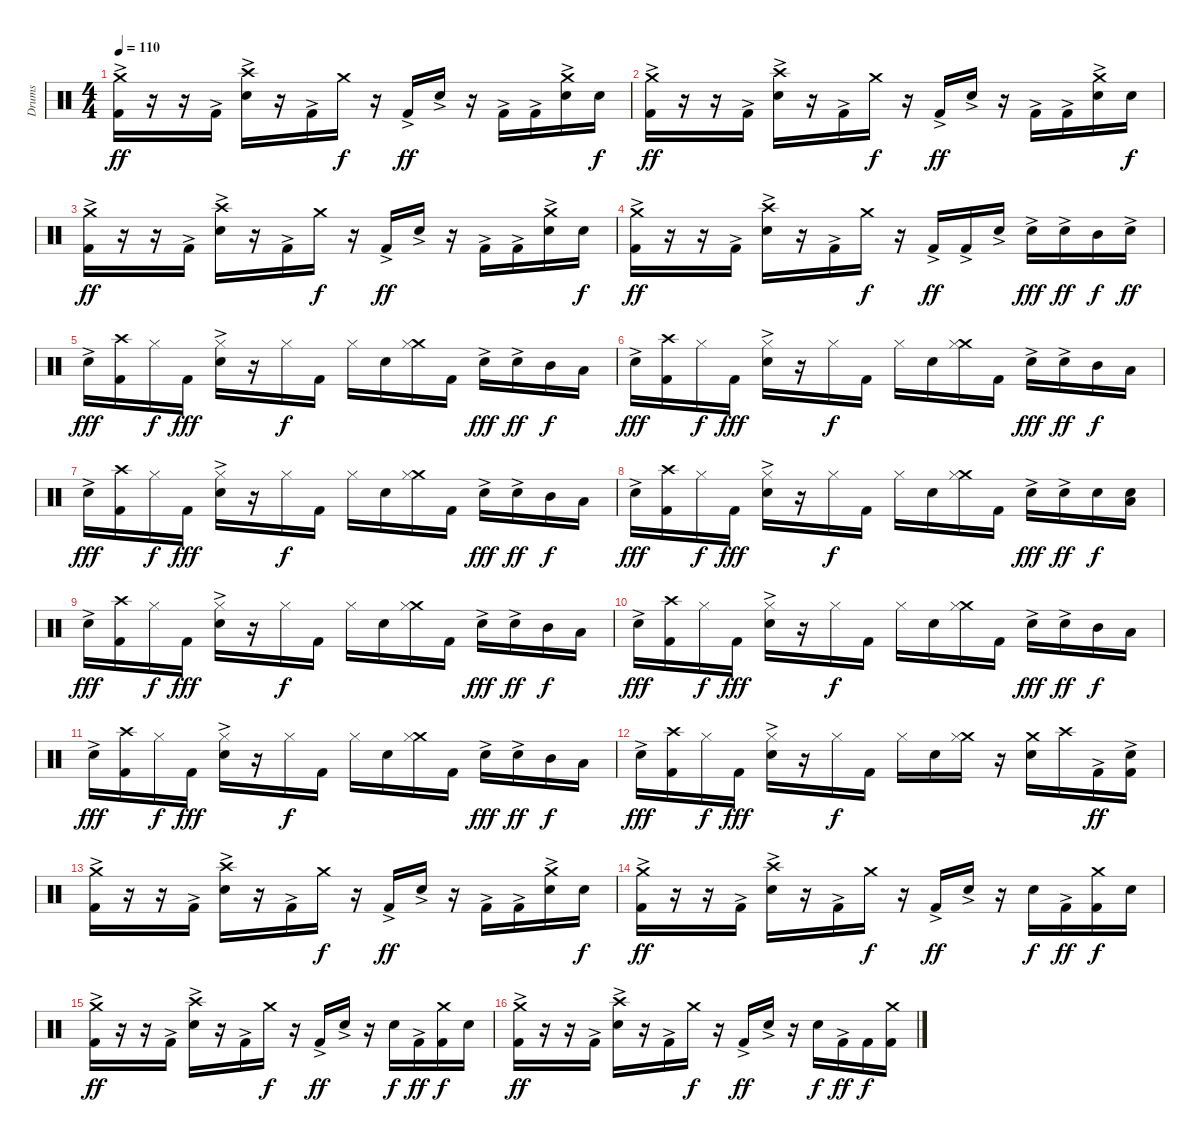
\track ("Drums" "Drums") {instrument percussion}
\staff {score}
\articulation defaults
\ts (4 4)
\tempo 110
\clef neutral
\ks c
("Crash medium (hit)" "Kick (hit) 2"{ac}).16{dy ff} r.16 r.16 "Kick (hit) 2"{ac}.16 ("Crash high (hit)" "Snare (hit) 2"{ac}).16 r.16 "Kick (hit) 2"{ac}.16 "Crash medium (hit)".16{dy f} r.16 "Kick (hit) 2"{ac}.16{dy ff} "Snare (hit) 2"{ac}.16 r.16 "Kick (hit) 2"{ac}.16 "Kick (hit) 2"{ac}.16 ("Crash medium (hit)" "Snare (hit) 2"{ac}).16 "Electric Snare (hit)".16{dy f} |
("Crash medium (hit)" "Kick (hit) 2"{ac}).16{dy ff} r.16 r.16 "Kick (hit) 2"{ac}.16 ("Crash high (hit)" "Snare (hit) 2"{ac}).16 r.16 "Kick (hit) 2"{ac}.16 "Crash medium (hit)".16{dy f} r.16 "Kick (hit) 2"{ac}.16{dy ff} "Snare (hit) 2"{ac}.16 r.16 "Kick (hit) 2"{ac}.16 "Kick (hit) 2"{ac}.16 ("Crash medium (hit)" "Snare (hit) 2"{ac}).16 "Electric Snare (hit)".16{dy f} |
("Crash medium (hit)" "Kick (hit) 2"{ac}).16{dy ff} r.16 r.16 "Kick (hit) 2"{ac}.16 ("Crash high (hit)" "Snare (hit) 2"{ac}).16 r.16 "Kick (hit) 2"{ac}.16 "Crash medium (hit)".16{dy f} r.16 "Kick (hit) 2"{ac}.16{dy ff} "Snare (hit) 2"{ac}.16 r.16 "Kick (hit) 2"{ac}.16 "Kick (hit) 2"{ac}.16 ("Crash medium (hit)" "Snare (hit) 2"{ac}).16 "Electric Snare (hit)".16{dy f} |
("Crash medium (hit)" "Kick (hit) 2"{ac}).16{dy ff} r.16 r.16 "Kick (hit) 2"{ac}.16 ("Crash high (hit)" "Snare (hit) 2"{ac}).16 r.16 "Kick (hit) 2"{ac}.16 "Crash medium (hit)".16{dy f} r.16 "Kick (hit) 2"{ac}.16{dy ff} "Kick (hit) 2"{ac}.16 "Electric Snare (hit)"{ac}.16 "Electric Snare (hit)"{ac}.16{dy fff} "Electric Snare (hit)"{ac}.16{dy ff} "Mid Tom (hit)".16{dy f} "Electric Snare (hit)"{ac}.16{dy ff} |
"Electric Snare (hit)"{ac}.16{dy fff} ("Crash high (hit)" "Kick (hit) 2").16 "Hi-Hat (closed)".16{dy f} "Kick (hit) 2".16{dy fff} ("Hi-Hat (closed)" "Snare (hit) 2"{ac}).16 r.16 "Hi-Hat (closed)".16{dy f} "Kick (hit) 2".16 "Hi-Hat (closed)".16 "Snare (hit) 2".16 ("Crash medium (hit)" "Hi-Hat (closed)").16 "Kick (hit) 2".16 "Electric Snare (hit)"{ac}.16{dy fff} "Electric Snare (hit)"{ac}.16{dy ff} "Mid Tom (hit)".16{dy f} "Low Tom (hit)".16 |
"Electric Snare (hit)"{ac}.16{dy fff} ("Crash high (hit)" "Kick (hit) 2").16 "Hi-Hat (closed)".16{dy f} "Kick (hit) 2".16{dy fff} ("Hi-Hat (closed)" "Snare (hit) 2"{ac}).16 r.16 "Hi-Hat (closed)".16{dy f} "Kick (hit) 2".16 "Hi-Hat (closed)".16 "Snare (hit) 2".16 ("Crash medium (hit)" "Hi-Hat (closed)").16 "Kick (hit) 2".16 "Electric Snare (hit)"{ac}.16{dy fff} "Electric Snare (hit)"{ac}.16{dy ff} "Mid Tom (hit)".16{dy f} "Low Tom (hit)".16 |
"Electric Snare (hit)"{ac}.16{dy fff} ("Crash high (hit)" "Kick (hit) 2").16 "Hi-Hat (closed)".16{dy f} "Kick (hit) 2".16{dy fff} ("Hi-Hat (closed)" "Snare (hit) 2"{ac}).16 r.16 "Hi-Hat (closed)".16{dy f} "Kick (hit) 2".16 "Hi-Hat (closed)".16 "Snare (hit) 2".16 ("Crash medium (hit)" "Hi-Hat (closed)").16 "Kick (hit) 2".16 "Electric Snare (hit)"{ac}.16{dy fff} "Electric Snare (hit)"{ac}.16{dy ff} "Mid Tom (hit)".16{dy f} "Low Tom (hit)".16 |
"Electric Snare (hit)"{ac}.16{dy fff} ("Crash high (hit)" "Kick (hit) 2").16 "Hi-Hat (closed)".16{dy f} "Kick (hit) 2".16{dy fff} ("Hi-Hat (closed)" "Snare (hit) 2"{ac}).16 r.16 "Hi-Hat (closed)".16{dy f} "Kick (hit) 2".16 "Hi-Hat (closed)".16 "Snare (hit) 2".16 ("Crash medium (hit)" "Hi-Hat (closed)").16 "Kick (hit) 2".16 "Electric Snare (hit)"{ac}.16{dy fff} "Electric Snare (hit)"{ac}.16{dy ff} "Electric Snare (hit)".16{dy f} ("Low Tom (hit)" "Electric Snare (hit)").16 |
"Electric Snare (hit)"{ac}.16{dy fff} ("Crash high (hit)" "Kick (hit) 2").16 "Hi-Hat (closed)".16{dy f} "Kick (hit) 2".16{dy fff} ("Hi-Hat (closed)" "Snare (hit) 2"{ac}).16 r.16 "Hi-Hat (closed)".16{dy f} "Kick (hit) 2".16 "Hi-Hat (closed)".16 "Snare (hit) 2".16 ("Crash medium (hit)" "Hi-Hat (closed)").16 "Kick (hit) 2".16 "Electric Snare (hit)"{ac}.16{dy fff} "Electric Snare (hit)"{ac}.16{dy ff} "Mid Tom (hit)".16{dy f} "Low Tom (hit)".16 |
"Electric Snare (hit)"{ac}.16{dy fff} ("Crash high (hit)" "Kick (hit) 2").16 "Hi-Hat (closed)".16{dy f} "Kick (hit) 2".16{dy fff} ("Hi-Hat (closed)" "Snare (hit) 2"{ac}).16 r.16 "Hi-Hat (closed)".16{dy f} "Kick (hit) 2".16 "Hi-Hat (closed)".16 "Snare (hit) 2".16 ("Crash medium (hit)" "Hi-Hat (closed)").16 "Kick (hit) 2".16 "Electric Snare (hit)"{ac}.16{dy fff} "Electric Snare (hit)"{ac}.16{dy ff} "Mid Tom (hit)".16{dy f} "Low Tom (hit)".16 |
"Electric Snare (hit)"{ac}.16{dy fff} ("Crash high (hit)" "Kick (hit) 2").16 "Hi-Hat (closed)".16{dy f} "Kick (hit) 2".16{dy fff} ("Hi-Hat (closed)" "Snare (hit) 2"{ac}).16 r.16 "Hi-Hat (closed)".16{dy f} "Kick (hit) 2".16 "Hi-Hat (closed)".16 "Snare (hit) 2".16 ("Crash medium (hit)" "Hi-Hat (closed)").16 "Kick (hit) 2".16 "Electric Snare (hit)"{ac}.16{dy fff} "Electric Snare (hit)"{ac}.16{dy ff} "Mid Tom (hit)".16{dy f} "Low Tom (hit)".16 |
"Electric Snare (hit)"{ac}.16{dy fff} ("Crash high (hit)" "Kick (hit) 2").16 "Hi-Hat (closed)".16{dy f} "Kick (hit) 2".16{dy fff} ("Hi-Hat (closed)" "Snare (hit) 2"{ac}).16 r.16 "Hi-Hat (closed)".16{dy f} "Kick (hit) 2".16 "Hi-Hat (closed)".16 "Snare (hit) 2".16 ("Crash medium (hit)" "Hi-Hat (closed)").16 r.16 ("Crash medium (hit)" "Electric Snare (hit)").16 "Crash high (hit)".16 "Kick (hit) 2"{ac}.16{dy ff} ("Electric Snare (hit)" "Kick (hit) 2"{ac}).16 |
("Crash medium (hit)" "Kick (hit) 2"{ac}).16 r.16 r.16 "Kick (hit) 2"{ac}.16 ("Crash high (hit)" "Snare (hit) 2"{ac}).16 r.16 "Kick (hit) 2"{ac}.16 "Crash medium (hit)".16{dy f} r.16 "Kick (hit) 2"{ac}.16{dy ff} "Snare (hit) 2"{ac}.16 r.16 "Kick (hit) 2"{ac}.16 "Kick (hit) 2"{ac}.16 ("Crash medium (hit)" "Snare (hit) 2"{ac}).16 "Electric Snare (hit)".16{dy f} |
("Crash medium (hit)" "Kick (hit) 2"{ac}).16{dy ff} r.16 r.16 "Kick (hit) 2"{ac}.16 ("Crash high (hit)" "Snare (hit) 2"{ac}).16 r.16 "Kick (hit) 2"{ac}.16 "Crash medium (hit)".16{dy f} r.16 "Kick (hit) 2"{ac}.16{dy ff} "Snare (hit) 2"{ac}.16 r.16 "Snare (hit) 2".16{dy f} "Kick (hit) 2"{ac}.16{dy ff} ("Crash medium (hit)" "Kick (hit) 2").16{dy f} "Snare (hit) 2".16 |
("Crash medium (hit)" "Kick (hit) 2"{ac}).16{dy ff} r.16 r.16 "Kick (hit) 2"{ac}.16 ("Crash high (hit)" "Snare (hit) 2"{ac}).16 r.16 "Kick (hit) 2"{ac}.16 "Crash medium (hit)".16{dy f} r.16 "Kick (hit) 2"{ac}.16{dy ff} "Snare (hit) 2"{ac}.16 r.16 "Snare (hit) 2".16{dy f} "Kick (hit) 2"{ac}.16{dy ff} ("Crash medium (hit)" "Kick (hit) 2").16{dy f} "Snare (hit) 2".16 |
("Crash medium (hit)" "Kick (hit) 2"{ac}).16{dy ff} r.16 r.16 "Kick (hit) 2"{ac}.16 ("Crash high (hit)" "Snare (hit) 2"{ac}).16 r.16 "Kick (hit) 2"{ac}.16 "Crash medium (hit)".16{dy f} r.16 "Kick (hit) 2"{ac}.16{dy ff} "Snare (hit) 2"{ac}.16 r.16 "Snare (hit) 2".16{dy f} "Kick (hit) 2"{ac}.16{dy ff} "Kick (hit) 2".16{dy f} ("Crash medium (hit)" "Kick (hit) 2").16
